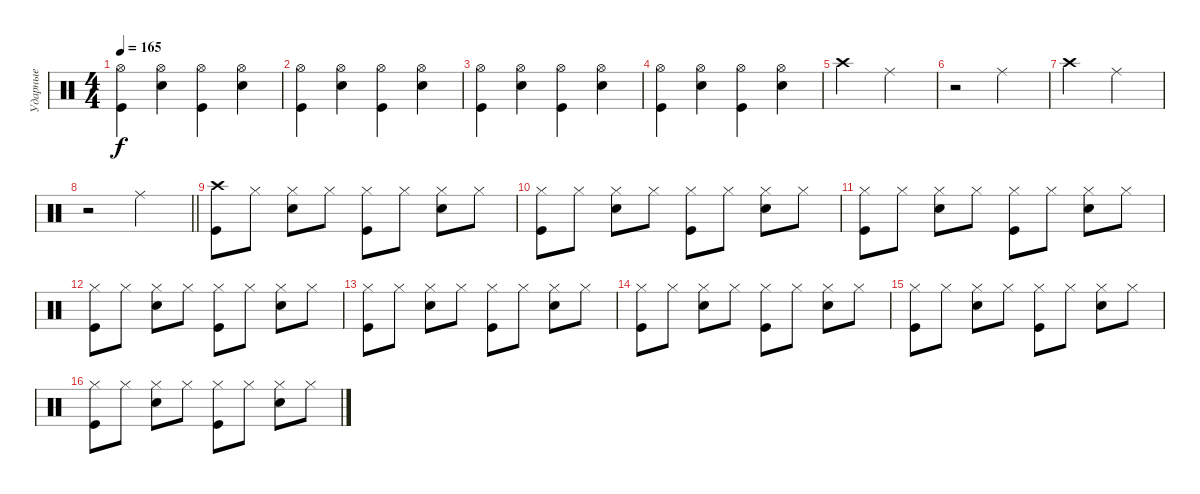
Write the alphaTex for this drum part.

\track ("Ударные" "Ударные") {instrument percussion}
\staff {score}
\articulation defaults
\ts (4 4)
\tempo 165
\clef neutral
\ks c
("Hi-Hat (open)" "Kick (hit)").4{dy f} ("Hi-Hat (open)" "Snare (hit) 2").4 ("Hi-Hat (open)" "Kick (hit)").4 ("Hi-Hat (open)" "Snare (hit) 2").4 |
("Hi-Hat (open)" "Kick (hit)").4 ("Hi-Hat (open)" "Snare (hit) 2").4 ("Hi-Hat (open)" "Kick (hit)").4 ("Hi-Hat (open)" "Snare (hit) 2").4 |
("Hi-Hat (open)" "Kick (hit)").4 ("Hi-Hat (open)" "Snare (hit) 2").4 ("Hi-Hat (open)" "Kick (hit)").4 ("Hi-Hat (open)" "Snare (hit) 2").4 |
("Hi-Hat (open)" "Kick (hit)").4 ("Hi-Hat (open)" "Snare (hit) 2").4 ("Hi-Hat (open)" "Kick (hit)").4 ("Hi-Hat (open)" "Snare (hit) 2").4 |
"Crash high (hit)".2 "Ride (middle)".2 |
r.2 "Ride (middle)".2 |
"Crash high (hit)".2 "Ride (middle)".2 |
\barLineRight lightlight
r.2 "Ride (middle)".2 |
("Crash high (hit)" "Kick (hit)").8 "Hi-Hat (closed)".8 ("Hi-Hat (closed)" "Snare (hit) 2").8 "Hi-Hat (closed)".8 ("Hi-Hat (closed)" "Kick (hit)").8 "Hi-Hat (closed)".8 ("Hi-Hat (closed)" "Snare (hit) 2").8 "Hi-Hat (closed)".8 |
("Hi-Hat (closed)" "Kick (hit)").8 "Hi-Hat (closed)".8 ("Hi-Hat (closed)" "Snare (hit) 2").8 "Hi-Hat (closed)".8 ("Hi-Hat (closed)" "Kick (hit)").8 "Hi-Hat (closed)".8 ("Hi-Hat (closed)" "Snare (hit) 2").8 "Hi-Hat (closed)".8 |
("Hi-Hat (closed)" "Kick (hit)").8 "Hi-Hat (closed)".8 ("Hi-Hat (closed)" "Snare (hit) 2").8 "Hi-Hat (closed)".8 ("Hi-Hat (closed)" "Kick (hit)").8 "Hi-Hat (closed)".8 ("Hi-Hat (closed)" "Snare (hit) 2").8 "Hi-Hat (closed)".8 |
("Hi-Hat (closed)" "Kick (hit)").8 "Hi-Hat (closed)".8 ("Hi-Hat (closed)" "Snare (hit) 2").8 "Hi-Hat (closed)".8 ("Hi-Hat (closed)" "Kick (hit)").8 "Hi-Hat (closed)".8 ("Hi-Hat (closed)" "Snare (hit) 2").8 "Hi-Hat (closed)".8 |
("Hi-Hat (closed)" "Kick (hit)").8 "Hi-Hat (closed)".8 ("Hi-Hat (closed)" "Snare (hit) 2").8 "Hi-Hat (closed)".8 ("Hi-Hat (closed)" "Kick (hit)").8 "Hi-Hat (closed)".8 ("Hi-Hat (closed)" "Snare (hit) 2").8 "Hi-Hat (closed)".8 |
("Hi-Hat (closed)" "Kick (hit)").8 "Hi-Hat (closed)".8 ("Hi-Hat (closed)" "Snare (hit) 2").8 "Hi-Hat (closed)".8 ("Hi-Hat (closed)" "Kick (hit)").8 "Hi-Hat (closed)".8 ("Hi-Hat (closed)" "Snare (hit) 2").8 "Hi-Hat (closed)".8 |
("Hi-Hat (closed)" "Kick (hit)").8 "Hi-Hat (closed)".8 ("Hi-Hat (closed)" "Snare (hit) 2").8 "Hi-Hat (closed)".8 ("Hi-Hat (closed)" "Kick (hit)").8 "Hi-Hat (closed)".8 ("Hi-Hat (closed)" "Snare (hit) 2").8 "Hi-Hat (closed)".8 |
("Hi-Hat (closed)" "Kick (hit)").8 "Hi-Hat (closed)".8 ("Hi-Hat (closed)" "Snare (hit) 2").8 "Hi-Hat (closed)".8 ("Hi-Hat (closed)" "Kick (hit)").8 "Hi-Hat (closed)".8 ("Hi-Hat (closed)" "Snare (hit) 2").8 "Hi-Hat (closed)".8
